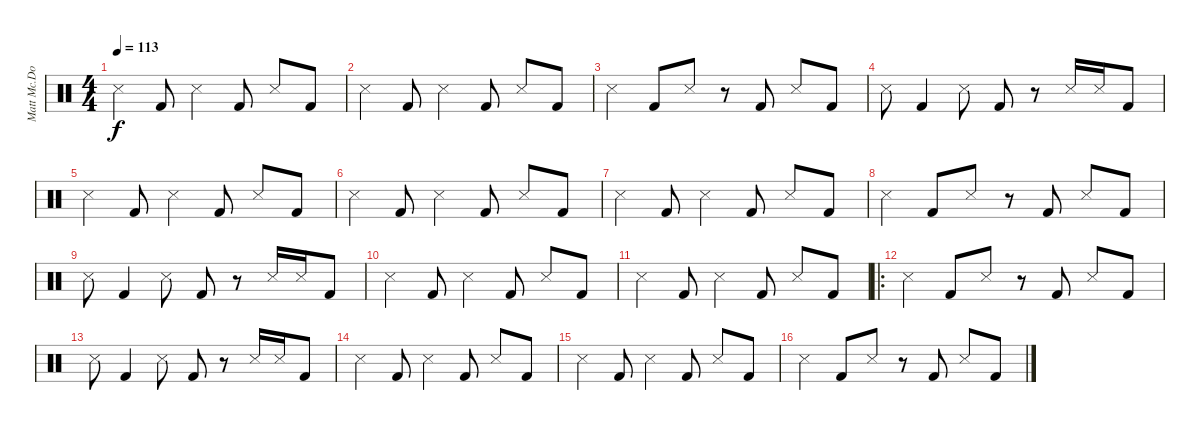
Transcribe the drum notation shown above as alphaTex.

\track ("Matt Mc.Donough" "Matt Mc.Do") {instrument percussion}
\staff {score}
\articulation defaults
\ts (4 4)
\tempo 113
\clef neutral
\ks c "Snare (side stick) 3".4{dy f} "Kick (hit) 2".8 "Snare (side stick) 3".4 "Kick (hit) 2".8 "Snare (side stick) 3".8 "Kick (hit) 2".8
|
"Snare (side stick) 3".4 "Kick (hit) 2".8 "Snare (side stick) 3".4 "Kick (hit) 2".8 "Snare (side stick) 3".8 "Kick (hit) 2".8 |
"Snare (side stick) 3".4 "Kick (hit) 2".8 "Snare (side stick) 3".8 r.8 "Kick (hit) 2".8 "Snare (side stick) 3".8 "Kick (hit) 2".8 |
"Snare (side stick) 3".8 "Kick (hit) 2".4 "Snare (side stick) 3".8 "Kick (hit) 2".8 r.8 "Snare (side stick) 3".16 "Snare (side stick) 3".16 "Kick (hit) 2".8 |
"Snare (side stick) 3".4 "Kick (hit) 2".8 "Snare (side stick) 3".4 "Kick (hit) 2".8 "Snare (side stick) 3".8 "Kick (hit) 2".8 |
"Snare (side stick) 3".4 "Kick (hit) 2".8 "Snare (side stick) 3".4 "Kick (hit) 2".8 "Snare (side stick) 3".8 "Kick (hit) 2".8 |
"Snare (side stick) 3".4 "Kick (hit) 2".8 "Snare (side stick) 3".4 "Kick (hit) 2".8 "Snare (side stick) 3".8 "Kick (hit) 2".8 |
"Snare (side stick) 3".4 "Kick (hit) 2".8 "Snare (side stick) 3".8 r.8 "Kick (hit) 2".8 "Snare (side stick) 3".8 "Kick (hit) 2".8 |
"Snare (side stick) 3".8 "Kick (hit) 2".4 "Snare (side stick) 3".8 "Kick (hit) 2".8 r.8 "Snare (side stick) 3".16 "Snare (side stick) 3".16 "Kick (hit) 2".8 |
"Snare (side stick) 3".4 "Kick (hit) 2".8 "Snare (side stick) 3".4 "Kick (hit) 2".8 "Snare (side stick) 3".8 "Kick (hit) 2".8 |
"Snare (side stick) 3".4 "Kick (hit) 2".8 "Snare (side stick) 3".4 "Kick (hit) 2".8 "Snare (side stick) 3".8 "Kick (hit) 2".8 |
\ro "Snare (side stick) 3".4 "Kick (hit) 2".8 "Snare (side stick) 3".8
r.8 "Kick (hit) 2".8 "Snare (side stick) 3".8 "Kick (hit) 2".8 |
"Snare (side stick) 3".8 "Kick (hit) 2".4 "Snare (side stick) 3".8 "Kick (hit) 2".8 r.8 "Snare (side stick) 3".16 "Snare (side stick) 3".16 "Kick (hit) 2".8 |
"Snare (side stick) 3".4 "Kick (hit) 2".8 "Snare (side stick) 3".4 "Kick (hit) 2".8 "Snare (side stick) 3".8 "Kick (hit) 2".8 |
"Snare (side stick) 3".4 "Kick (hit) 2".8 "Snare (side stick) 3".4 "Kick (hit) 2".8 "Snare (side stick) 3".8 "Kick (hit) 2".8 |
"Snare (side stick) 3".4 "Kick (hit) 2".8 "Snare (side stick) 3".8 r.8 "Kick (hit) 2".8 "Snare (side stick) 3".8 "Kick (hit) 2".8
